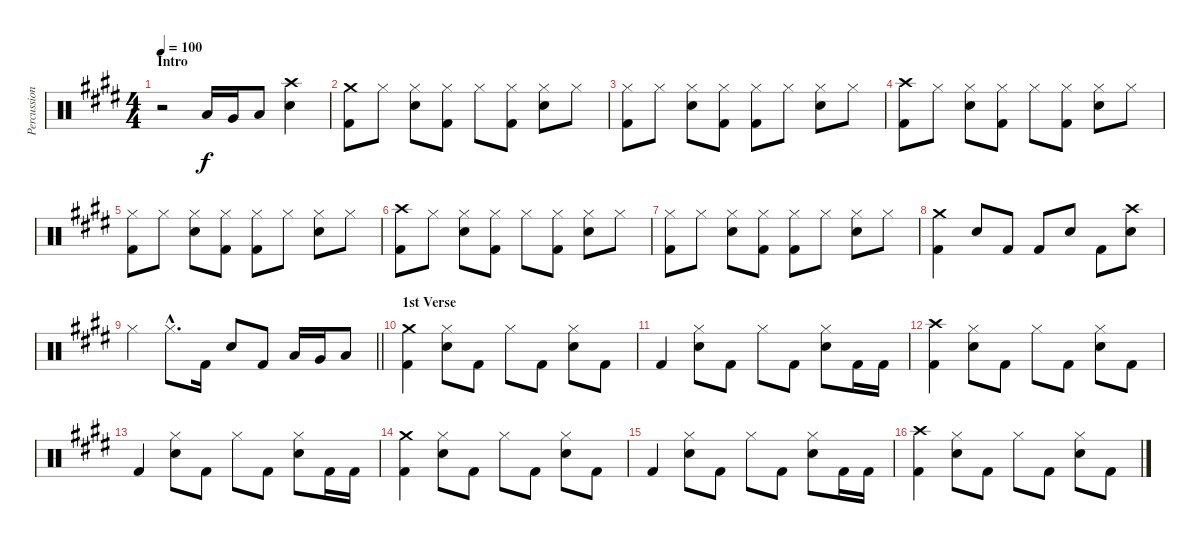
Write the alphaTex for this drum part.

\track ("Percussion" "Percussion") {instrument percussion}
\staff {score}
\articulation defaults
\ts (4 4)
\section ("" "Intro")
\tempo 100
\clef neutral
\ks c#minor
r.2{dy f} "Low Tom (hit)".16 "Very Low Tom (hit)".16 "Low Floor Tom (hit)".8 ("Crash high (hit)" "Snare (hit) 2").4 |
("Crash medium (hit)" "Kick (hit) 2").8 "Hi-Hat (closed)".8 ("Hi-Hat (closed)" "Snare (hit) 2").8 ("Hi-Hat (closed)" "Kick (hit) 2").8 "Hi-Hat (closed)".8 ("Hi-Hat (closed)" "Kick (hit) 2").8 ("Hi-Hat (closed)" "Snare (hit) 2").8 "Hi-Hat (closed)".8 |
("Hi-Hat (closed)" "Kick (hit) 2").8 "Hi-Hat (closed)".8 ("Hi-Hat (closed)" "Snare (hit) 2").8 ("Hi-Hat (closed)" "Kick (hit) 2").8 ("Hi-Hat (closed)" "Kick (hit) 2").8 "Hi-Hat (closed)".8 ("Hi-Hat (closed)" "Snare (hit) 2").8 "Hi-Hat (closed)".8 |
("Crash high (hit)" "Kick (hit) 2").8 "Hi-Hat (closed)".8 ("Hi-Hat (closed)" "Snare (hit) 2").8 ("Hi-Hat (closed)" "Kick (hit) 2").8 "Hi-Hat (closed)".8 ("Hi-Hat (closed)" "Kick (hit) 2").8 ("Hi-Hat (closed)" "Snare (hit) 2").8 "Hi-Hat (closed)".8 |
("Hi-Hat (closed)" "Kick (hit) 2").8 "Hi-Hat (closed)".8 ("Hi-Hat (closed)" "Snare (hit) 2").8 ("Hi-Hat (closed)" "Kick (hit) 2").8 ("Hi-Hat (closed)" "Kick (hit) 2").8 "Hi-Hat (closed)".8 ("Hi-Hat (closed)" "Snare (hit) 2").8 "Hi-Hat (closed)".8 |
("Crash high (hit)" "Kick (hit) 2").8 "Hi-Hat (closed)".8 ("Hi-Hat (closed)" "Snare (hit) 2").8 ("Hi-Hat (closed)" "Kick (hit) 2").8 "Hi-Hat (closed)".8 ("Hi-Hat (closed)" "Kick (hit) 2").8 ("Hi-Hat (closed)" "Snare (hit) 2").8 "Hi-Hat (closed)".8 |
("Hi-Hat (closed)" "Kick (hit) 2").8 "Hi-Hat (closed)".8 ("Hi-Hat (closed)" "Snare (hit) 2").8 ("Hi-Hat (closed)" "Kick (hit) 2").8 ("Hi-Hat (closed)" "Kick (hit) 2").8 "Hi-Hat (closed)".8 ("Hi-Hat (closed)" "Snare (hit) 2").8 "Hi-Hat (closed)".8 |
("Crash medium (hit)" "Kick (hit) 2").4 "Snare (hit) 2".8 "Kick (hit) 2".8 "Kick (hit) 2".8 "Snare (hit) 2".8 "Kick (hit) 2".8 ("Crash high (hit)" "Snare (hit) 2").8 |
\barLineRight lightlight "Hi-Hat (closed)".4 "Hi-Hat (closed)"{hac}.8{d} "Kick (hit) 2".16 "Snare (hit) 2".8 "Kick (hit) 2".8 "Low Tom (hit)".16 "Very Low Tom (hit)".16 "Low Floor Tom (hit)".8
|
\section ("" "1st Verse")
("Crash medium (hit)" "Kick (hit) 2").4 ("Hi-Hat (closed)" "Snare (hit) 2").8 "Kick (hit) 2".8 "Hi-Hat (closed)".8 "Kick (hit) 2".8 ("Hi-Hat (closed)" "Snare (hit) 2").8 "Kick (hit) 2".8 |
"Kick (hit) 2".4 ("Hi-Hat (closed)" "Snare (hit) 2").8 "Kick (hit) 2".8 "Hi-Hat (closed)".8 "Kick (hit) 2".8 ("Hi-Hat (closed)" "Snare (hit) 2").8 "Kick (hit) 2".16 "Kick (hit) 2".16 |
("Crash high (hit)" "Kick (hit) 2").4 ("Hi-Hat (closed)" "Snare (hit) 2").8 "Kick (hit) 2".8 "Hi-Hat (closed)".8 "Kick (hit) 2".8 ("Hi-Hat (closed)" "Snare (hit) 2").8 "Kick (hit) 2".8 |
"Kick (hit) 2".4 ("Hi-Hat (closed)" "Snare (hit) 2").8 "Kick (hit) 2".8 "Hi-Hat (closed)".8 "Kick (hit) 2".8 ("Hi-Hat (closed)" "Snare (hit) 2").8 "Kick (hit) 2".16 "Kick (hit) 2".16 |
("Crash medium (hit)" "Kick (hit) 2").4 ("Hi-Hat (closed)" "Snare (hit) 2").8 "Kick (hit) 2".8 "Hi-Hat (closed)".8 "Kick (hit) 2".8 ("Hi-Hat (closed)" "Snare (hit) 2").8 "Kick (hit) 2".8 |
"Kick (hit) 2".4 ("Hi-Hat (closed)" "Snare (hit) 2").8 "Kick (hit) 2".8 "Hi-Hat (closed)".8 "Kick (hit) 2".8 ("Hi-Hat (closed)" "Snare (hit) 2").8 "Kick (hit) 2".16 "Kick (hit) 2".16 |
("Crash high (hit)" "Kick (hit) 2").4 ("Hi-Hat (closed)" "Snare (hit) 2").8 "Kick (hit) 2".8 "Hi-Hat (closed)".8 "Kick (hit) 2".8 ("Hi-Hat (closed)" "Snare (hit) 2").8 "Kick (hit) 2".8
